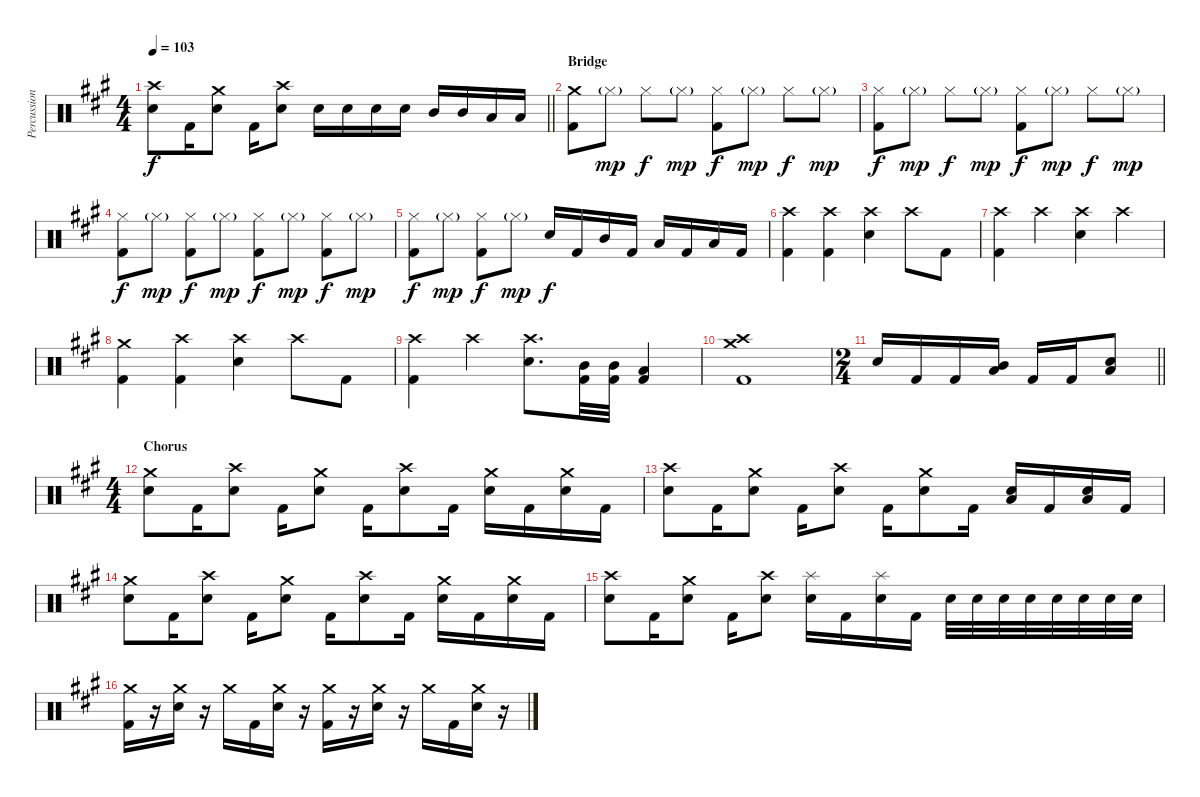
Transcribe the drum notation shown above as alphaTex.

\track ("Percussion" "Percussion") {instrument percussion}
\staff {score}
\articulation defaults
\ts (4 4)
\tempo 103
\clef neutral
\barLineRight lightlight
\ks f#minor
("Crash high (hit)" "Electric Snare (hit)").8{dy f} "Kick (hit) 2".16 ("Crash medium (hit)" "Electric Snare (hit)").8 "Kick (hit) 2".16 ("Crash high (hit)" "Electric Snare (hit)").8 "Electric Snare (hit)".16 "Electric Snare (hit)".16 "Electric Snare (hit)".16 "Electric Snare (hit)".16 "Mid Tom (hit)".16 "Mid Tom (hit)".16 "Low Tom (hit)".16 "Low Tom (hit)".16 |
\section ("" "Bridge")
("Crash medium (hit)" "Kick (hit) 2").8 "Hi-Hat (closed)"{g}.8{dy mp} "Hi-Hat (closed)".8{dy f} "Hi-Hat (closed)"{g}.8{dy mp} ("Hi-Hat (closed)" "Kick (hit) 2").8{dy f} "Hi-Hat (closed)"{g}.8{dy mp} "Hi-Hat (closed)".8{dy f} "Hi-Hat (closed)"{g}.8{dy mp} |
("Hi-Hat (closed)" "Kick (hit) 2").8{dy f} "Hi-Hat (closed)"{g}.8{dy mp} "Hi-Hat (closed)".8{dy f} "Hi-Hat (closed)"{g}.8{dy mp} ("Hi-Hat (closed)" "Kick (hit) 2").8{dy f} "Hi-Hat (closed)"{g}.8{dy mp} "Hi-Hat (closed)".8{dy f} "Hi-Hat (closed)"{g}.8{dy mp} |
("Hi-Hat (closed)" "Kick (hit) 2").8{dy f} "Hi-Hat (closed)"{g}.8{dy mp} ("Hi-Hat (closed)" "Kick (hit) 2").8{dy f} "Hi-Hat (closed)"{g}.8{dy mp} ("Hi-Hat (closed)" "Kick (hit) 2").8{dy f} "Hi-Hat (closed)"{g}.8{dy mp} ("Hi-Hat (closed)" "Kick (hit) 2").8{dy f} "Hi-Hat (closed)"{g}.8{dy mp} |
("Hi-Hat (closed)" "Kick (hit) 2").8{dy f} "Hi-Hat (closed)"{g}.8{dy mp} ("Hi-Hat (closed)" "Kick (hit) 2").8{dy f} "Hi-Hat (closed)"{g}.8{dy mp} "Electric Snare (hit)".16{dy f} "Kick (hit) 2".16 "Mid Tom (hit)".16 "Kick (hit) 2".16 "Low Tom (hit)".16 "Kick (hit) 2".16 "Low Tom (hit)".16 "Kick (hit) 2".16 |
("Crash high (hit)" "Kick (hit) 2").4 ("Crash high (hit)" "Kick (hit) 2").4 ("Crash high (hit)" "Electric Snare (hit)").4 "Crash high (hit)".8 "Kick (hit) 2".8 |
("Crash high (hit)" "Kick (hit) 2").4 "Crash high (hit)".4 ("Crash high (hit)" "Electric Snare (hit)").4 "Crash high (hit)".4 |
("Crash medium (hit)" "Kick (hit) 2").4 ("Crash high (hit)" "Kick (hit) 2").4 ("Crash high (hit)" "Electric Snare (hit)").4 "Crash high (hit)".8 "Kick (hit) 2".8 |
("Crash high (hit)" "Kick (hit) 2").4 "Crash high (hit)".4 ("Crash high (hit)" "Electric Snare (hit)").8{d} ("Mid Tom (hit)" "Kick (hit) 2").32 ("Mid Tom (hit)" "Kick (hit) 2").32 ("Low Tom (hit)" "Kick (hit) 2").4 |
("Crash high (hit)" "Crash medium (hit)" "Kick (hit) 2").1 |
\ts (2 4)
\barLineRight lightlight "Electric Snare (hit)".16 "Kick (hit) 2".16 "Kick (hit) 2".16
("Mid Tom (hit)" "Low Tom (hit)").16 "Kick (hit) 2".16 "Kick (hit) 2".16 ("Low Tom (hit)" "Electric Snare (hit)").8 |
\ts (4 4)
\section ("" "Chorus")
("Crash medium (hit)" "Electric Snare (hit)").8 "Kick (hit) 2".16 ("Crash high (hit)" "Electric Snare (hit)").8 "Kick (hit) 2".16 ("Crash medium (hit)" "Electric Snare (hit)").8 "Kick (hit) 2".16 ("Crash high (hit)" "Electric Snare (hit)").8 "Kick (hit) 2".16 ("Crash medium (hit)" "Electric Snare (hit)").16 "Kick (hit) 2".16 ("Crash medium (hit)" "Electric Snare (hit)").16 "Kick (hit) 2".16 |
("Crash high (hit)" "Electric Snare (hit)").8 "Kick (hit) 2".16 ("Crash medium (hit)" "Electric Snare (hit)").8 "Kick (hit) 2".16 ("Crash high (hit)" "Electric Snare (hit)").8 "Kick (hit) 2".16 ("Crash medium (hit)" "Electric Snare (hit)").8 "Kick (hit) 2".16 ("Low Tom (hit)" "Electric Snare (hit)").16 "Kick (hit) 2".16 ("Low Tom (hit)" "Electric Snare (hit)").16 "Kick (hit) 2".16 |
("Crash medium (hit)" "Electric Snare (hit)").8 "Kick (hit) 2".16 ("Crash high (hit)" "Electric Snare (hit)").8 "Kick (hit) 2".16 ("Crash medium (hit)" "Electric Snare (hit)").8 "Kick (hit) 2".16 ("Crash high (hit)" "Electric Snare (hit)").8 "Kick (hit) 2".16 ("Crash medium (hit)" "Electric Snare (hit)").16 "Kick (hit) 2".16 ("Crash medium (hit)" "Electric Snare (hit)").16 "Kick (hit) 2".16 |
("Crash high (hit)" "Electric Snare (hit)").8 "Kick (hit) 2".16 ("Crash medium (hit)" "Electric Snare (hit)").8 "Kick (hit) 2".16 ("Crash high (hit)" "Electric Snare (hit)").8 ("Splash (hit)" "Electric Snare (hit)").16 "Kick (hit) 2".16 ("Splash (hit)" "Electric Snare (hit)").16 "Kick (hit) 2".16 "Electric Snare (hit)".32 "Electric Snare (hit)".32 "Electric Snare (hit)".32 "Electric Snare (hit)".32 "Electric Snare (hit)".32 "Electric Snare (hit)".32 "Electric Snare (hit)".32 "Electric Snare (hit)".32 |
("Crash medium (hit)" "Kick (hit) 2").16 r.16 ("Crash medium (hit)" "Electric Snare (hit)").16 r.16 "Crash medium (hit)".16 "Kick (hit) 2".16 ("Crash medium (hit)" "Electric Snare (hit)").16 r.16 ("Crash medium (hit)" "Kick (hit) 2").16 r.16 ("Crash medium (hit)" "Electric Snare (hit)").16 r.16 "Crash medium (hit)".16 "Kick (hit) 2".16 ("Crash medium (hit)" "Electric Snare (hit)").16 r.16
